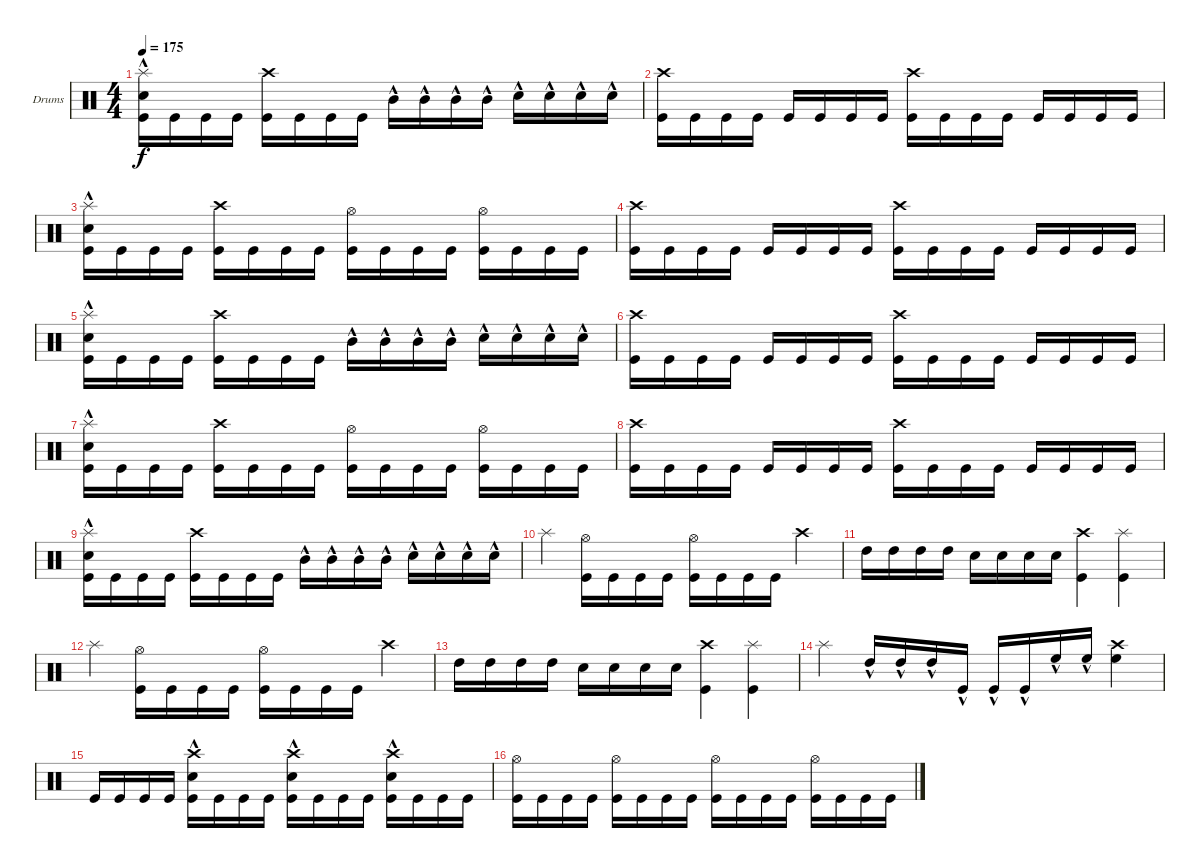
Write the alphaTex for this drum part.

\defaultSystemsLayout 4
\bracketExtendMode groupsimilarinstruments
\firstSystemTrackNameOrientation horizontal
\otherSystemsTrackNameOrientation horizontal
\track ("Drumkit" "Drums") {instrument percussion}
\staff {score}
\articulation defaults
\ts (4 4)
\tempo 175
\clef neutral
\scale
0.333333
\ks c
("Kick (hit)" "Snare (hit) 2"{hac} "Splash (hit)").16{dy f} "Kick (hit)".16 "Kick (hit)".16 "Kick (hit)".16 ("Kick (hit)" "Crash high (hit)").16 "Kick (hit)".16 "Kick (hit)".16 "Kick (hit)".16 "Mid Tom (hit)"{hac}.16 "Mid Tom (hit)"{hac}.16 "Mid Tom (hit)"{hac}.16 "Mid Tom (hit)"{hac}.16 "Snare (hit) 2"{hac}.16 "Snare (hit) 2"{hac}.16 "Snare (hit) 2"{hac}.16 "Snare (hit) 2"{hac}.16 |
("Kick (hit)" "Crash high (hit)").16 "Kick (hit)".16 "Kick (hit)".16 "Kick (hit)".16 "Kick (hit)".16 "Kick (hit)".16 "Kick (hit)".16 "Kick (hit)".16 ("Kick (hit)" "Crash high (hit)").16 "Kick (hit)".16 "Kick (hit)".16 "Kick (hit)".16 "Kick (hit)".16 "Kick (hit)".16 "Kick (hit)".16 "Kick (hit)".16 |
("Kick (hit)" "Snare (hit) 2"{hac} "Splash (hit)").16 "Kick (hit)".16 "Kick (hit)".16 "Kick (hit)".16 ("Kick (hit)" "Crash high (hit)").16 "Kick (hit)".16 "Kick (hit)".16 "Kick (hit)".16 ("Kick (hit)" "Hi-Hat (open)").16 "Kick (hit)".16 "Kick (hit)".16 "Kick (hit)".16 ("Kick (hit)" "Hi-Hat (open)").16 "Kick (hit)".16 "Kick (hit)".16 "Kick (hit)".16 |
("Kick (hit)" "Crash high (hit)").16 "Kick (hit)".16 "Kick (hit)".16 "Kick (hit)".16 "Kick (hit)".16 "Kick (hit)".16 "Kick (hit)".16 "Kick (hit)".16 ("Kick (hit)" "Crash high (hit)").16 "Kick (hit)".16 "Kick (hit)".16 "Kick (hit)".16 "Kick (hit)".16 "Kick (hit)".16 "Kick (hit)".16 "Kick (hit)".16 |
("Kick (hit)" "Snare (hit) 2"{hac} "Splash (hit)").16 "Kick (hit)".16 "Kick (hit)".16 "Kick (hit)".16 ("Kick (hit)" "Crash high (hit)").16 "Kick (hit)".16 "Kick (hit)".16 "Kick (hit)".16 "Mid Tom (hit)"{hac}.16 "Mid Tom (hit)"{hac}.16 "Mid Tom (hit)"{hac}.16 "Mid Tom (hit)"{hac}.16 "Snare (hit) 2"{hac}.16 "Snare (hit) 2"{hac}.16 "Snare (hit) 2"{hac}.16 "Snare (hit) 2"{hac}.16 |
("Kick (hit)" "Crash high (hit)").16 "Kick (hit)".16 "Kick (hit)".16 "Kick (hit)".16 "Kick (hit)".16 "Kick (hit)".16 "Kick (hit)".16 "Kick (hit)".16 ("Kick (hit)" "Crash high (hit)").16 "Kick (hit)".16 "Kick (hit)".16 "Kick (hit)".16 "Kick (hit)".16 "Kick (hit)".16 "Kick (hit)".16 "Kick (hit)".16 |
("Kick (hit)" "Snare (hit) 2"{hac} "Splash (hit)").16 "Kick (hit)".16 "Kick (hit)".16 "Kick (hit)".16 ("Kick (hit)" "Crash high (hit)").16 "Kick (hit)".16 "Kick (hit)".16 "Kick (hit)".16 ("Kick (hit)" "Hi-Hat (open)").16 "Kick (hit)".16 "Kick (hit)".16 "Kick (hit)".16 ("Kick (hit)" "Hi-Hat (open)").16 "Kick (hit)".16 "Kick (hit)".16 "Kick (hit)".16 |
("Kick (hit)" "Crash high (hit)").16 "Kick (hit)".16 "Kick (hit)".16 "Kick (hit)".16 "Kick (hit)".16 "Kick (hit)".16 "Kick (hit)".16 "Kick (hit)".16 ("Kick (hit)" "Crash high (hit)").16 "Kick (hit)".16 "Kick (hit)".16 "Kick (hit)".16 "Kick (hit)".16 "Kick (hit)".16 "Kick (hit)".16 "Kick (hit)".16 |
("Kick (hit)" "Snare (hit) 2"{hac} "Splash (hit)").16 "Kick (hit)".16 "Kick (hit)".16 "Kick (hit)".16 ("Kick (hit)" "Crash high (hit)").16 "Kick (hit)".16 "Kick (hit)".16 "Kick (hit)".16 "Mid Tom (hit)"{hac}.16 "Mid Tom (hit)"{hac}.16 "Mid Tom (hit)"{hac}.16 "Mid Tom (hit)"{hac}.16 "Snare (hit) 2"{hac}.16 "Snare (hit) 2"{hac}.16 "Snare (hit) 2"{hac}.16 "Snare (hit) 2"{hac}.16 |
\scale
0.333333 "Splash (hit)".4 ("Kick (hit)" "Hi-Hat (open)").16 "Kick (hit)".16 "Kick (hit)".16 "Kick (hit)".16 ("Kick (hit)" "Hi-Hat (open)").16 "Kick (hit)".16 "Kick (hit)".16 "Kick (hit)".16 "Crash high (hit)".4 |
\scale
0.333333 "High Tom (hit)".16 "High Tom (hit)".16 "High Tom (hit)".16 "High Tom (hit)".16 "Snare (hit) 2".16 "Snare (hit) 2".16 "Snare (hit) 2".16 "Snare (hit) 2".16 ("Crash high (hit)" "Kick (hit)").4 ("Splash (hit)" "Kick (hit)").4 |
\scale
0.333333 "Splash (hit)".4 ("Kick (hit)" "Hi-Hat (open)").16 "Kick (hit)".16 "Kick (hit)".16 "Kick (hit)".16 ("Kick (hit)" "Hi-Hat (open)").16 "Kick (hit)".16 "Kick (hit)".16 "Kick (hit)".16 "Crash high (hit)".4 |
\scale
0.333333 "High Tom (hit)".16 "High Tom (hit)".16 "High Tom (hit)".16 "High Tom (hit)".16 "Snare (hit) 2".16 "Snare (hit) 2".16 "Snare (hit) 2".16 "Snare (hit) 2".16 ("Crash high (hit)" "Kick (hit)").4 ("Splash (hit)" "Kick (hit)").4 |
\scale
0.333333 "Splash (hit)".4 "High Tom (hit)"{hac}.16 "High Tom (hit)"{hac}.16 "High Tom (hit)"{hac}.16 "Kick (hit)"{hac}.16 "Kick (hit)"{hac}.16 "Kick (hit)"{hac}.16 "High Floor Tom (hit)"{hac}.16 "High Floor Tom (hit)"{hac}.16 ("Crash high (hit)" "High Floor Tom (hit)").4 |
\scale
0.333333 "Kick (hit)".16 "Kick (hit)".16 "Kick (hit)".16 "Kick (hit)".16 ("Kick (hit)" "Crash high (hit)" "Snare (hit) 2"{hac}).16 "Kick (hit)".16 "Kick (hit)".16 "Kick (hit)".16 ("Kick (hit)" "Crash high (hit)" "Snare (hit) 2"{hac}).16 "Kick (hit)".16 "Kick (hit)".16 "Kick (hit)".16 ("Kick (hit)" "Crash high (hit)" "Snare (hit) 2"{hac}).16 "Kick (hit)".16 "Kick (hit)".16 "Kick (hit)".16 |
\scale
0.333333 ("Kick (hit)" "Hi-Hat (open)").16 "Kick (hit)".16 "Kick (hit)".16 "Kick (hit)".16 ("Kick (hit)" "Hi-Hat (open)").16 "Kick (hit)".16 "Kick (hit)".16 "Kick (hit)".16 ("Kick (hit)" "Hi-Hat (open)").16 "Kick (hit)".16 "Kick (hit)".16 "Kick (hit)".16 ("Kick (hit)" "Hi-Hat (open)").16 "Kick (hit)".16 "Kick (hit)".16 "Kick (hit)".16
